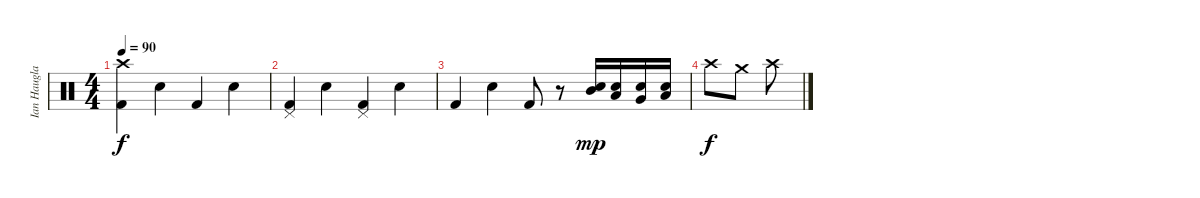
\track ("Ian Haugland" "Ian Haugla") {instrument percussion}
\staff {score}
\articulation defaults
\ts (4 4)
\tempo 90
\clef neutral
\ks c
("Crash high (hit)" "Kick (hit) 2").4{dy f} "Snare (hit) 2".4 "Kick (hit) 2".4 "Snare (hit) 2".4 |
("Pedal Hi-Hat (hit)" "Kick (hit) 2").4 "Snare (hit) 2".4 ("Pedal Hi-Hat (hit)" "Kick (hit) 2").4 "Snare (hit) 2".4 |
"Kick (hit) 2".4 "Snare (hit) 2".4 "Kick (hit) 2".8 r.8 ("Mid Tom (hit)" "Electric Snare (hit)").16{dy mp} ("Low Tom (hit)" "Electric Snare (hit)").16 ("Very Low Tom (hit)" "Electric Snare (hit)").16 ("Low Floor Tom (hit)" "Electric Snare (hit)").16 |
"Crash high (hit)".8{dy f} "Crash medium (hit)".8 "Crash high (hit)".8
